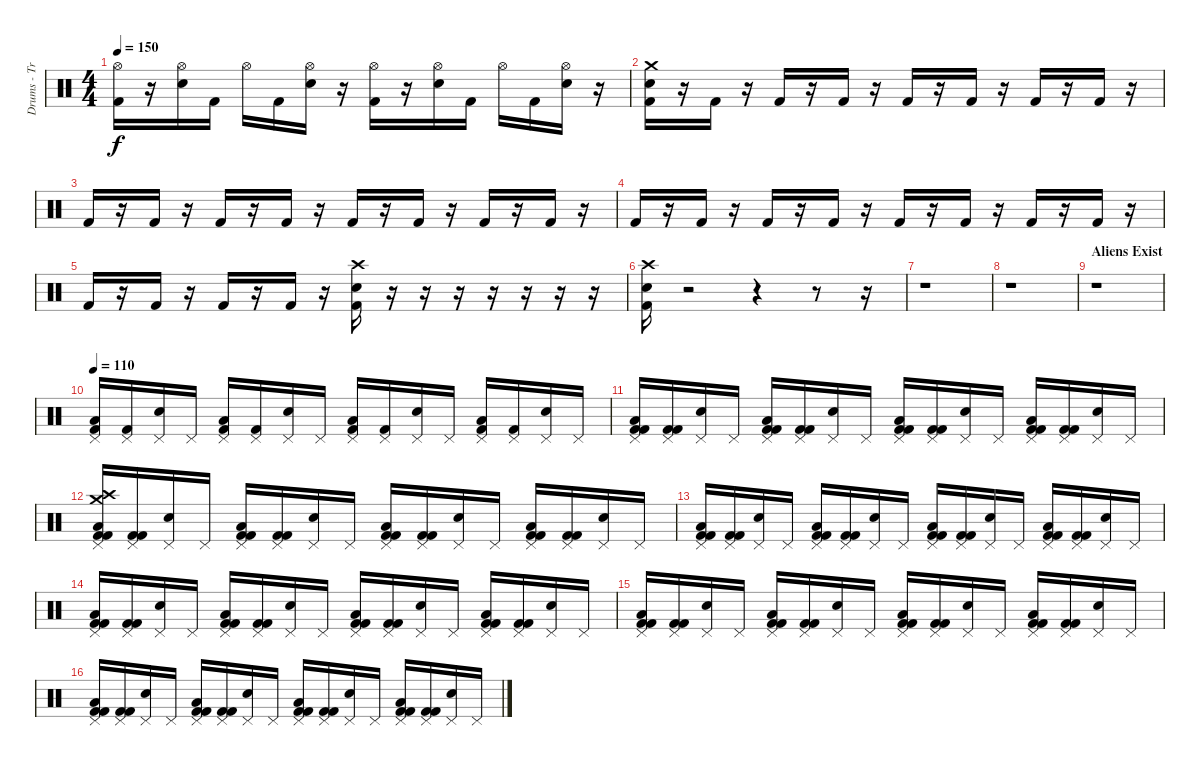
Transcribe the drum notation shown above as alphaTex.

\track ("Drums - Travis Barker" "Drums - Tr") {instrument percussion}
\staff {score}
\articulation defaults
\ts (4 4)
\tempo 150
\clef neutral
\ks c
("Hi-Hat (open)" "Kick (hit) 2").16{dy f} r.16 ("Hi-Hat (open)" "Electric Snare (hit)").16 "Kick (hit) 2".16 "Hi-Hat (open)".16 "Kick (hit) 2".16 ("Hi-Hat (open)" "Electric Snare (hit)").16 r.16 ("Hi-Hat (open)" "Kick (hit) 2").16 r.16 ("Hi-Hat (open)" "Electric Snare (hit)").16 "Kick (hit) 2".16 "Hi-Hat (open)".16 "Kick (hit) 2".16 ("Hi-Hat (open)" "Electric Snare (hit)").16 r.16 |
("Crash medium (hit)" "Electric Snare (hit)" "Kick (hit) 2").16 r.16 "Kick (hit) 2".16 r.16 "Kick (hit) 2".16 r.16 "Kick (hit) 2".16 r.16 "Kick (hit) 2".16 r.16 "Kick (hit) 2".16 r.16 "Kick (hit) 2".16 r.16 "Kick (hit) 2".16 r.16 |
"Kick (hit) 2".16 r.16 "Kick (hit) 2".16 r.16 "Kick (hit) 2".16 r.16 "Kick (hit) 2".16 r.16 "Kick (hit) 2".16 r.16 "Kick (hit) 2".16 r.16 "Kick (hit) 2".16 r.16 "Kick (hit) 2".16 r.16 |
"Kick (hit) 2".16 r.16 "Kick (hit) 2".16 r.16 "Kick (hit) 2".16 r.16 "Kick (hit) 2".16 r.16 "Kick (hit) 2".16 r.16 "Kick (hit) 2".16 r.16 "Kick (hit) 2".16 r.16 "Kick (hit) 2".16 r.16 |
"Kick (hit) 2".16 r.16 "Kick (hit) 2".16 r.16 "Kick (hit) 2".16 r.16 "Kick (hit) 2".16 r.16 ("Crash high (hit)" "Electric Snare (hit)" "Kick (hit) 2").16 r.16 r.16 r.16 r.16 r.16 r.16 r.16 |
("Crash high (hit)" "Electric Snare (hit)" "Kick (hit) 2").16 r.2 r.4 r.8 r.16 |
r.1 |
r.1 |
\section ("" "Aliens Exist")
r.1 |
\tempo 110
("Pedal Hi-Hat (hit)" "Low Tom (hit)" "Kick (hit) 2").16 ("Pedal Hi-Hat (hit)" "Kick (hit) 2").16 ("Pedal Hi-Hat (hit)" "Electric Snare (hit)").16 "Pedal Hi-Hat (hit)".16 ("Pedal Hi-Hat (hit)" "Low Tom (hit)" "Kick (hit) 2").16 ("Pedal Hi-Hat (hit)" "Kick (hit) 2").16 ("Pedal Hi-Hat (hit)" "Electric Snare (hit)").16 "Pedal Hi-Hat (hit)".16 ("Pedal Hi-Hat (hit)" "Low Tom (hit)" "Kick (hit) 2").16 ("Pedal Hi-Hat (hit)" "Kick (hit) 2").16 ("Pedal Hi-Hat (hit)" "Electric Snare (hit)").16 "Pedal Hi-Hat (hit)".16 ("Pedal Hi-Hat (hit)" "Low Tom (hit)" "Kick (hit) 2").16 ("Pedal Hi-Hat (hit)" "Kick (hit) 2").16 ("Pedal Hi-Hat (hit)" "Electric Snare (hit)").16 "Pedal Hi-Hat (hit)".16 |
("Pedal Hi-Hat (hit)" "Low Tom (hit)" "Kick (hit) 2" "Kick (hit) 2").16 ("Pedal Hi-Hat (hit)" "Kick (hit) 2" "Kick (hit) 2").16 ("Pedal Hi-Hat (hit)" "Electric Snare (hit)").16 "Pedal Hi-Hat (hit)".16 ("Pedal Hi-Hat (hit)" "Low Tom (hit)" "Kick (hit) 2" "Kick (hit) 2").16 ("Pedal Hi-Hat (hit)" "Kick (hit) 2" "Kick (hit) 2").16 ("Pedal Hi-Hat (hit)" "Electric Snare (hit)").16 "Pedal Hi-Hat (hit)".16 ("Pedal Hi-Hat (hit)" "Low Tom (hit)" "Kick (hit) 2" "Kick (hit) 2").16 ("Pedal Hi-Hat (hit)" "Kick (hit) 2" "Kick (hit) 2").16 ("Pedal Hi-Hat (hit)" "Electric Snare (hit)").16 "Pedal Hi-Hat (hit)".16 ("Pedal Hi-Hat (hit)" "Low Tom (hit)" "Kick (hit) 2" "Kick (hit) 2").16 ("Pedal Hi-Hat (hit)" "Kick (hit) 2" "Kick (hit) 2").16 ("Pedal Hi-Hat (hit)" "Electric Snare (hit)").16 "Pedal Hi-Hat (hit)".16 |
("Pedal Hi-Hat (hit)" "Crash high (hit)" "Low Tom (hit)" "Crash medium (hit)" "Kick (hit) 2" "Kick (hit) 2").16 ("Pedal Hi-Hat (hit)" "Kick (hit) 2" "Kick (hit) 2").16 ("Pedal Hi-Hat (hit)" "Electric Snare (hit)").16 "Pedal Hi-Hat (hit)".16 ("Pedal Hi-Hat (hit)" "Low Tom (hit)" "Kick (hit) 2" "Kick (hit) 2").16 ("Pedal Hi-Hat (hit)" "Kick (hit) 2" "Kick (hit) 2").16 ("Pedal Hi-Hat (hit)" "Electric Snare (hit)").16 "Pedal Hi-Hat (hit)".16 ("Pedal Hi-Hat (hit)" "Low Tom (hit)" "Kick (hit) 2" "Kick (hit) 2").16 ("Pedal Hi-Hat (hit)" "Kick (hit) 2" "Kick (hit) 2").16 ("Pedal Hi-Hat (hit)" "Electric Snare (hit)").16 "Pedal Hi-Hat (hit)".16 ("Pedal Hi-Hat (hit)" "Low Tom (hit)" "Kick (hit) 2" "Kick (hit) 2").16 ("Pedal Hi-Hat (hit)" "Kick (hit) 2" "Kick (hit) 2").16 ("Pedal Hi-Hat (hit)" "Electric Snare (hit)").16 "Pedal Hi-Hat (hit)".16 |
("Pedal Hi-Hat (hit)" "Low Tom (hit)" "Kick (hit) 2" "Kick (hit) 2").16 ("Pedal Hi-Hat (hit)" "Kick (hit) 2" "Kick (hit) 2").16 ("Pedal Hi-Hat (hit)" "Electric Snare (hit)").16 "Pedal Hi-Hat (hit)".16 ("Pedal Hi-Hat (hit)" "Low Tom (hit)" "Kick (hit) 2" "Kick (hit) 2").16 ("Pedal Hi-Hat (hit)" "Kick (hit) 2" "Kick (hit) 2").16 ("Pedal Hi-Hat (hit)" "Electric Snare (hit)").16 "Pedal Hi-Hat (hit)".16 ("Pedal Hi-Hat (hit)" "Low Tom (hit)" "Kick (hit) 2" "Kick (hit) 2").16 ("Pedal Hi-Hat (hit)" "Kick (hit) 2" "Kick (hit) 2").16 ("Pedal Hi-Hat (hit)" "Electric Snare (hit)").16 "Pedal Hi-Hat (hit)".16 ("Pedal Hi-Hat (hit)" "Low Tom (hit)" "Kick (hit) 2" "Kick (hit) 2").16 ("Pedal Hi-Hat (hit)" "Kick (hit) 2" "Kick (hit) 2").16 ("Pedal Hi-Hat (hit)" "Electric Snare (hit)").16 "Pedal Hi-Hat (hit)".16 |
("Pedal Hi-Hat (hit)" "Low Tom (hit)" "Kick (hit) 2" "Kick (hit) 2").16 ("Pedal Hi-Hat (hit)" "Kick (hit) 2" "Kick (hit) 2").16 ("Pedal Hi-Hat (hit)" "Electric Snare (hit)").16 "Pedal Hi-Hat (hit)".16 ("Pedal Hi-Hat (hit)" "Low Tom (hit)" "Kick (hit) 2" "Kick (hit) 2").16 ("Pedal Hi-Hat (hit)" "Kick (hit) 2" "Kick (hit) 2").16 ("Pedal Hi-Hat (hit)" "Electric Snare (hit)").16 "Pedal Hi-Hat (hit)".16 ("Pedal Hi-Hat (hit)" "Low Tom (hit)" "Kick (hit) 2" "Kick (hit) 2").16 ("Pedal Hi-Hat (hit)" "Kick (hit) 2" "Kick (hit) 2").16 ("Pedal Hi-Hat (hit)" "Electric Snare (hit)").16 "Pedal Hi-Hat (hit)".16 ("Pedal Hi-Hat (hit)" "Low Tom (hit)" "Kick (hit) 2" "Kick (hit) 2").16 ("Pedal Hi-Hat (hit)" "Kick (hit) 2" "Kick (hit) 2").16 ("Pedal Hi-Hat (hit)" "Electric Snare (hit)").16 "Pedal Hi-Hat (hit)".16 |
("Pedal Hi-Hat (hit)" "Low Tom (hit)" "Kick (hit) 2" "Kick (hit) 2").16 ("Pedal Hi-Hat (hit)" "Kick (hit) 2" "Kick (hit) 2").16 ("Pedal Hi-Hat (hit)" "Electric Snare (hit)").16 "Pedal Hi-Hat (hit)".16 ("Pedal Hi-Hat (hit)" "Low Tom (hit)" "Kick (hit) 2" "Kick (hit) 2").16 ("Pedal Hi-Hat (hit)" "Kick (hit) 2" "Kick (hit) 2").16 ("Pedal Hi-Hat (hit)" "Electric Snare (hit)").16 "Pedal Hi-Hat (hit)".16 ("Pedal Hi-Hat (hit)" "Low Tom (hit)" "Kick (hit) 2" "Kick (hit) 2").16 ("Pedal Hi-Hat (hit)" "Kick (hit) 2" "Kick (hit) 2").16 ("Pedal Hi-Hat (hit)" "Electric Snare (hit)").16 "Pedal Hi-Hat (hit)".16 ("Pedal Hi-Hat (hit)" "Low Tom (hit)" "Kick (hit) 2" "Kick (hit) 2").16 ("Pedal Hi-Hat (hit)" "Kick (hit) 2" "Kick (hit) 2").16 ("Pedal Hi-Hat (hit)" "Electric Snare (hit)").16 "Pedal Hi-Hat (hit)".16 |
("Pedal Hi-Hat (hit)" "Low Tom (hit)" "Kick (hit) 2" "Kick (hit) 2").16 ("Pedal Hi-Hat (hit)" "Kick (hit) 2" "Kick (hit) 2").16 ("Pedal Hi-Hat (hit)" "Electric Snare (hit)").16 "Pedal Hi-Hat (hit)".16 ("Pedal Hi-Hat (hit)" "Low Tom (hit)" "Kick (hit) 2" "Kick (hit) 2").16 ("Pedal Hi-Hat (hit)" "Kick (hit) 2" "Kick (hit) 2").16 ("Pedal Hi-Hat (hit)" "Electric Snare (hit)").16 "Pedal Hi-Hat (hit)".16 ("Pedal Hi-Hat (hit)" "Low Tom (hit)" "Kick (hit) 2" "Kick (hit) 2").16 ("Pedal Hi-Hat (hit)" "Kick (hit) 2" "Kick (hit) 2").16 ("Pedal Hi-Hat (hit)" "Electric Snare (hit)").16 "Pedal Hi-Hat (hit)".16 ("Pedal Hi-Hat (hit)" "Low Tom (hit)" "Kick (hit) 2" "Kick (hit) 2").16 ("Pedal Hi-Hat (hit)" "Kick (hit) 2" "Kick (hit) 2").16 ("Pedal Hi-Hat (hit)" "Electric Snare (hit)").16 "Pedal Hi-Hat (hit)".16
